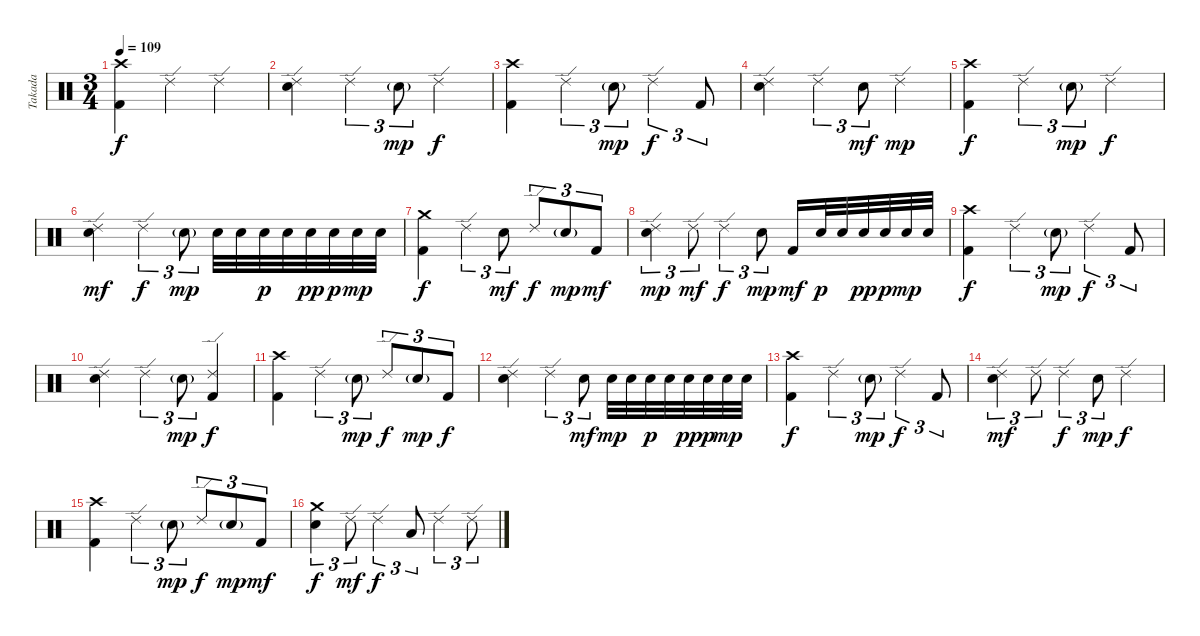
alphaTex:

\track ("Takada" "Takada") {instrument percussion}
\staff {score}
\articulation defaults
\ts (3 4)
\tempo 109
\clef neutral
\ks c
("Crash high (hit)" "Kick (hit) 2").4{dy f} "Ride (edge) 2".4 "Ride (edge) 2".4 |
("Ride (edge) 2" "Electric Snare (hit)").4 "Ride (edge) 2".4{tu (3 2)} "Electric Snare (hit)"{g}.8{tu (3 2) dy mp} "Ride (edge) 2".4{dy f} |
("Crash high (hit)" "Kick (hit) 2").4 "Ride (edge) 2".4{tu (3 2)} "Electric Snare (hit)"{g}.8{tu (3 2) dy mp} "Ride (edge) 2".4{tu (3 2) dy f} "Kick (hit) 2".8{tu (3 2)} |
("Ride (edge) 2" "Electric Snare (hit)").4 "Ride (edge) 2".4{tu (3 2)} "Electric Snare (hit)".8{tu (3 2) dy mf} "Ride (edge) 2".4{dy mp} |
("Crash high (hit)" "Kick (hit) 2").4{dy f} "Ride (edge) 2".4{tu (3 2)} "Electric Snare (hit)"{g}.8{tu (3 2) dy mp} "Ride (edge) 2".4{dy f} |
("Ride (edge) 2" "Electric Snare (hit)").4{dy mf} "Ride (edge) 2".4{tu (3 2) dy f} "Electric Snare (hit)"{g}.8{tu (3 2) dy mp} "Electric Snare (hit)".32 "Electric Snare (hit)".32 "Electric Snare (hit)".32{dy p} "Electric Snare (hit)".32 "Electric Snare (hit)".32{dy pp} "Electric Snare (hit)".32{dy p} "Electric Snare (hit)".32{dy mp} "Electric Snare (hit)".32 |
("Crash medium (hit)" "Kick (hit) 2").4{dy f} "Ride (edge) 2".4{tu (3 2)} "Electric Snare (hit)".8{tu (3 2) dy mf} "Ride (edge) 2".8{tu (3 2) dy f} "Electric Snare (hit)"{g}.8{tu (3 2) dy mp} "Kick (hit) 2".8{tu (3 2) dy mf} |
("Ride (edge) 2" "Electric Snare (hit)").4{tu (3 2) dy mp} "Ride (edge) 2".8{tu (3 2) dy mf} "Ride (edge) 2".4{tu (3 2) dy f} "Electric Snare (hit)".8{tu (3 2) dy mp} "Kick (hit) 2".16{dy mf} "Electric Snare (hit)".32{dy p} "Electric Snare (hit)".32 "Electric Snare (hit)".32{dy pp} "Electric Snare (hit)".32{dy p} "Electric Snare (hit)".32{dy mp} "Electric Snare (hit)".32 |
("Crash high (hit)" "Kick (hit) 2").4{dy f} "Ride (edge) 2".4{tu (3 2)} "Electric Snare (hit)"{g}.8{tu (3 2) dy mp} "Ride (edge) 2".4{tu (3 2) dy f} "Kick (hit) 2".8{tu (3 2)} |
("Ride (edge) 2" "Electric Snare (hit)").4 "Ride (edge) 2".4{tu (3 2)} "Electric Snare (hit)"{g}.8{tu (3 2) dy mp} ("Ride (edge) 2" "Kick (hit) 2").4{dy f} |
("Crash high (hit)" "Kick (hit) 2").4 "Ride (edge) 2".4{tu (3 2)} "Electric Snare (hit)"{g}.8{tu (3 2) dy mp} "Ride (edge) 2".8{tu (3 2) dy f} "Electric Snare (hit)"{g}.8{tu (3 2) dy mp} "Kick (hit) 2".8{tu (3 2) dy f} |
("Ride (edge) 2" "Electric Snare (hit)").4 "Ride (edge) 2".4{tu (3 2)} "Electric Snare (hit)".8{tu (3 2) dy mf} "Electric Snare (hit)".32{dy mp} "Electric Snare (hit)".32 "Electric Snare (hit)".32{dy p} "Electric Snare (hit)".32 "Electric Snare (hit)".32{dy pp} "Electric Snare (hit)".32{dy p} "Electric Snare (hit)".32{dy mp} "Electric Snare (hit)".32 |
("Crash high (hit)" "Kick (hit) 2").4{dy f} "Ride (edge) 2".4{tu (3 2)} "Electric Snare (hit)"{g}.8{tu (3 2) dy mp} "Ride (edge) 2".4{tu (3 2) dy f} "Kick (hit) 2".8{tu (3 2)} |
("Ride (edge) 2" "Electric Snare (hit)").4{tu (3 2) dy mf} "Ride (edge) 2".8{tu (3 2)} "Ride (edge) 2".4{tu (3 2) dy f} "Electric Snare (hit)".8{tu (3 2) dy mp} "Ride (edge) 2".4{dy f} |
("Crash high (hit)" "Kick (hit) 2").4 "Ride (edge) 2".4{tu (3 2)} "Electric Snare (hit)"{g}.8{tu (3 2) dy mp} "Ride (edge) 2".8{tu (3 2) dy f} "Electric Snare (hit)"{g}.8{tu (3 2) dy mp} "Kick (hit) 2".8{tu (3 2) dy mf} |
("Crash medium (hit)" "Electric Snare (hit)").4{tu (3 2) dy f} "Ride (edge) 2".8{tu (3 2) dy mf} "Ride (edge) 2".4{tu (3 2) dy f} "Low Tom (hit)".8{tu (3 2)} "Ride (edge) 2".4{tu (3 2)} "Ride (edge) 2".8{tu (3 2)}
